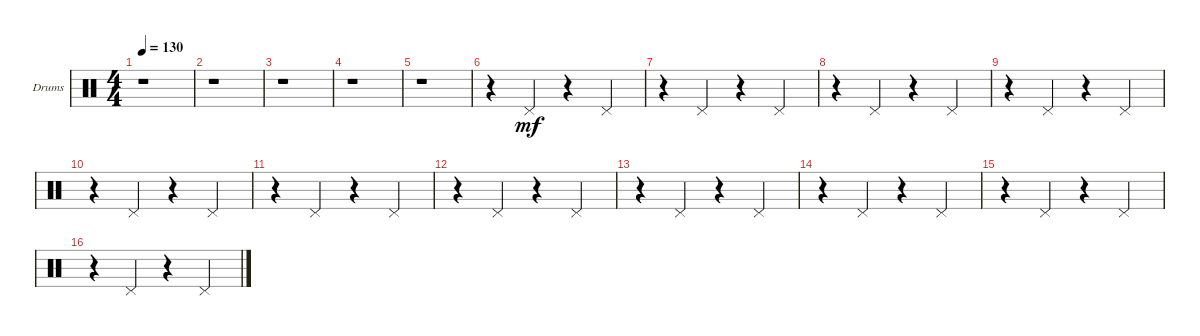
\defaultSystemsLayout 4
\bracketExtendMode groupsimilarinstruments
\firstSystemTrackNameOrientation horizontal
\otherSystemsTrackNameOrientation horizontal
\chordDiagramsInScore
\track ("Drumkit" "Drums") {instrument percussion}
\staff {score}
\articulation defaults
\ts (4 4)
\tempo 130
\clef neutral
\ks c
r.1{dy f} |
\scale
0.25 r.1 |
\scale
0.25 r.1 |
\scale
0.25 r.1 |
\scale
0.25 r.1 |
r.4 "Pedal Hi-Hat (hit)".4{dy mf} r.4 "Pedal Hi-Hat (hit)".4 |
r.4 "Pedal Hi-Hat (hit)".4 r.4 "Pedal Hi-Hat (hit)".4 |
r.4 "Pedal Hi-Hat (hit)".4 r.4 "Pedal Hi-Hat (hit)".4 |
r.4 "Pedal Hi-Hat (hit)".4 r.4 "Pedal Hi-Hat (hit)".4 |
r.4 "Pedal Hi-Hat (hit)".4 r.4 "Pedal Hi-Hat (hit)".4 |
r.4 "Pedal Hi-Hat (hit)".4 r.4 "Pedal Hi-Hat (hit)".4 |
r.4 "Pedal Hi-Hat (hit)".4 r.4 "Pedal Hi-Hat (hit)".4 |
r.4 "Pedal Hi-Hat (hit)".4 r.4 "Pedal Hi-Hat (hit)".4 |
r.4 "Pedal Hi-Hat (hit)".4 r.4 "Pedal Hi-Hat (hit)".4 |
r.4 "Pedal Hi-Hat (hit)".4 r.4 "Pedal Hi-Hat (hit)".4 |
r.4 "Pedal Hi-Hat (hit)".4 r.4 "Pedal Hi-Hat (hit)".4
